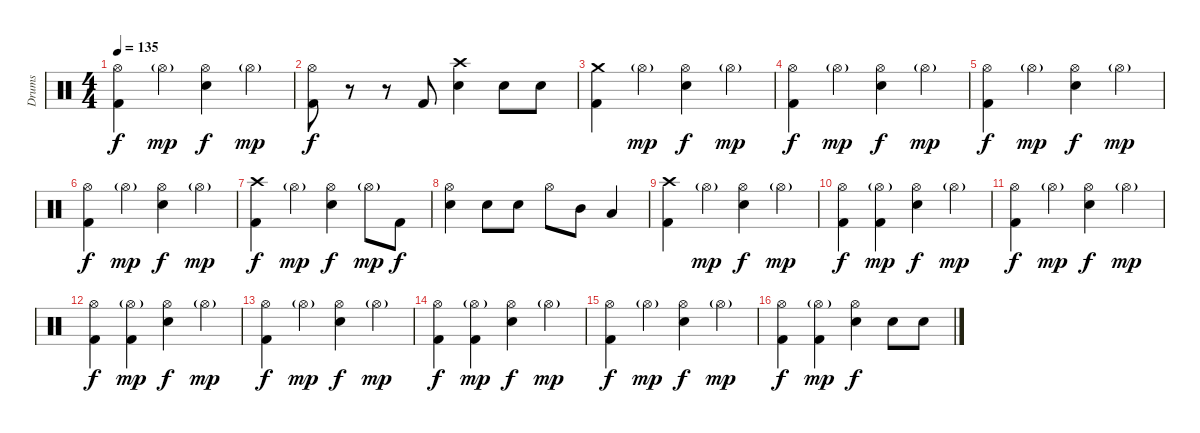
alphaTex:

\track ("Drums" "Drums") {instrument percussion}
\staff {score}
\articulation defaults
\ts (4 4)
\tempo 135
\clef neutral
\ks c
("Hi-Hat (open)" "Kick (hit) 2").4{dy f} "Hi-Hat (open)"{g}.4{dy mp} ("Hi-Hat (open)" "Snare (hit) 2").4{dy f} "Hi-Hat (open)"{g}.4{dy mp} |
("Hi-Hat (open)" "Kick (hit) 2").8{dy f} r.8 r.8 "Kick (hit) 2".8 ("Crash high (hit)" "Snare (hit) 2").4 "Snare (hit) 2".8 "Snare (hit) 2".8 |
("Crash medium (hit)" "Kick (hit) 2").4 "Hi-Hat (open)"{g}.4{dy mp} ("Hi-Hat (open)" "Snare (hit) 2").4{dy f} "Hi-Hat (open)"{g}.4{dy mp} |
("Hi-Hat (open)" "Kick (hit) 2").4{dy f} "Hi-Hat (open)"{g}.4{dy mp} ("Hi-Hat (open)" "Snare (hit) 2").4{dy f} "Hi-Hat (open)"{g}.4{dy mp} |
("Hi-Hat (open)" "Kick (hit) 2").4{dy f} "Hi-Hat (open)"{g}.4{dy mp} ("Hi-Hat (open)" "Snare (hit) 2").4{dy f} "Hi-Hat (open)"{g}.4{dy mp} |
("Hi-Hat (open)" "Kick (hit) 2").4{dy f} "Hi-Hat (open)"{g}.4{dy mp} ("Hi-Hat (open)" "Snare (hit) 2").4{dy f} "Hi-Hat (open)"{g}.4{dy mp} |
("Crash high (hit)" "Kick (hit) 2").4{dy f} "Hi-Hat (open)"{g}.4{dy mp} ("Hi-Hat (open)" "Snare (hit) 2").4{dy f} "Hi-Hat (open)"{g}.8{dy mp} "Kick (hit) 2".8{dy f} |
("Hi-Hat (open)" "Snare (hit) 2").4 "Snare (hit) 2".8 "Snare (hit) 2".8 "Hi-Hat (open)".8 "Mid Tom (hit)".8 "Low Tom (hit)".4 |
("Crash high (hit)" "Kick (hit) 2").4 "Hi-Hat (open)"{g}.4{dy mp} ("Hi-Hat (open)" "Snare (hit) 2").4{dy f} "Hi-Hat (open)"{g}.4{dy mp} |
("Hi-Hat (open)" "Kick (hit) 2").4{dy f} ("Hi-Hat (open)"{g} "Kick (hit) 2").4{dy mp} ("Hi-Hat (open)" "Snare (hit) 2").4{dy f} "Hi-Hat (open)"{g}.4{dy mp} |
("Hi-Hat (open)" "Kick (hit) 2").4{dy f} "Hi-Hat (open)"{g}.4{dy mp} ("Hi-Hat (open)" "Snare (hit) 2").4{dy f} "Hi-Hat (open)"{g}.4{dy mp} |
("Hi-Hat (open)" "Kick (hit) 2").4{dy f} ("Hi-Hat (open)"{g} "Kick (hit) 2").4{dy mp} ("Hi-Hat (open)" "Snare (hit) 2").4{dy f} "Hi-Hat (open)"{g}.4{dy mp} |
("Hi-Hat (open)" "Kick (hit) 2").4{dy f} "Hi-Hat (open)"{g}.4{dy mp} ("Hi-Hat (open)" "Snare (hit) 2").4{dy f} "Hi-Hat (open)"{g}.4{dy mp} |
("Hi-Hat (open)" "Kick (hit) 2").4{dy f} ("Hi-Hat (open)"{g} "Kick (hit) 2").4{dy mp} ("Hi-Hat (open)" "Snare (hit) 2").4{dy f} "Hi-Hat (open)"{g}.4{dy mp} |
("Hi-Hat (open)" "Kick (hit) 2").4{dy f} "Hi-Hat (open)"{g}.4{dy mp} ("Hi-Hat (open)" "Snare (hit) 2").4{dy f} "Hi-Hat (open)"{g}.4{dy mp} |
("Hi-Hat (open)" "Kick (hit) 2").4{dy f} ("Hi-Hat (open)"{g} "Kick (hit) 2").4{dy mp} ("Hi-Hat (open)" "Snare (hit) 2").4{dy f} "Snare (hit) 2".8 "Snare (hit) 2".8
